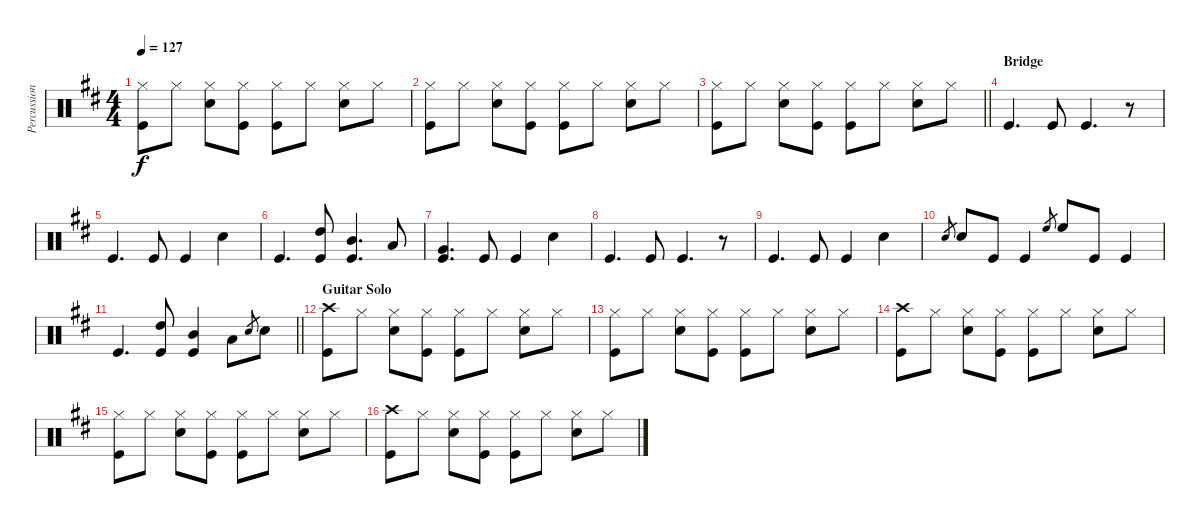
\track ("Percussion" "Percussion") {instrument percussion}
\staff {score}
\articulation defaults
\ts (4 4)
\tempo 127
\clef neutral
\ks d
("Hi-Hat (closed)" "Kick (hit)").8{dy f} "Hi-Hat (closed)".8 ("Hi-Hat (closed)" "Snare (hit) 2").8 ("Hi-Hat (closed)" "Kick (hit)").8 ("Hi-Hat (closed)" "Kick (hit)").8 "Hi-Hat (closed)".8 ("Hi-Hat (closed)" "Snare (hit) 2").8 "Hi-Hat (closed)".8 |
("Hi-Hat (closed)" "Kick (hit)").8 "Hi-Hat (closed)".8 ("Hi-Hat (closed)" "Snare (hit) 2").8 ("Hi-Hat (closed)" "Kick (hit)").8 ("Hi-Hat (closed)" "Kick (hit)").8 "Hi-Hat (closed)".8 ("Hi-Hat (closed)" "Snare (hit) 2").8 "Hi-Hat (closed)".8 |
\barLineRight lightlight
("Hi-Hat (closed)" "Kick (hit)").8 "Hi-Hat (closed)".8 ("Hi-Hat (closed)" "Snare (hit) 2").8 ("Hi-Hat (closed)" "Kick (hit)").8 ("Hi-Hat (closed)" "Kick (hit)").8 "Hi-Hat (closed)".8 ("Hi-Hat (closed)" "Snare (hit) 2").8 "Hi-Hat (closed)".8 |
\section ("" "Bridge")
"Kick (hit)".4{d} "Kick (hit)".8 "Kick (hit)".4{d} r.8 |
"Kick (hit)".4{d} "Kick (hit)".8 "Kick (hit)".4 "Snare (hit) 2".4 |
"Kick (hit)".4{d} ("High Tom (hit)" "Kick (hit)").8 ("Mid Tom (hit)" "Kick (hit)").4{d} "Low Tom (hit)".8 |
("Very Low Tom (hit)" "Kick (hit)").4{d} "Kick (hit)".8 "Kick (hit)".4 "Snare (hit) 2".4 |
"Kick (hit)".4{d} "Kick (hit)".8 "Kick (hit)".4{d} r.8 |
"Kick (hit)".4{d} "Kick (hit)".8 "Kick (hit)".4 "Snare (hit) 2".4 |
"Snare (hit) 2".8{gr} "Snare (hit) 2".8 "Kick (hit)".8 "Kick (hit)".4 "High Floor Tom (hit)".8{gr} "High Floor Tom (hit)".8 "Kick (hit)".8 "Kick (hit)".4 |
\barLineRight lightlight "Kick (hit)".4{d}
("High Tom (hit)" "Kick (hit)").8 ("Mid Tom (hit)" "Kick (hit)").4 "Low Tom (hit)".8 "Snare (hit) 2".8{gr} "Snare (hit) 2".8 |
\section ("" "Guitar Solo")
("Crash high (hit)" "Kick (hit)").8 "Hi-Hat (closed)".8 ("Hi-Hat (closed)" "Snare (hit) 2").8 ("Hi-Hat (closed)" "Kick (hit)").8 ("Hi-Hat (closed)" "Kick (hit)").8 "Hi-Hat (closed)".8 ("Hi-Hat (closed)" "Snare (hit) 2").8 "Hi-Hat (closed)".8 |
("Hi-Hat (closed)" "Kick (hit)").8 "Hi-Hat (closed)".8 ("Hi-Hat (closed)" "Snare (hit) 2").8 ("Hi-Hat (closed)" "Kick (hit)").8 ("Hi-Hat (closed)" "Kick (hit)").8 "Hi-Hat (closed)".8 ("Hi-Hat (closed)" "Snare (hit) 2").8 "Hi-Hat (closed)".8 |
("Crash high (hit)" "Kick (hit)").8 "Hi-Hat (closed)".8 ("Hi-Hat (closed)" "Snare (hit) 2").8 ("Hi-Hat (closed)" "Kick (hit)").8 ("Hi-Hat (closed)" "Kick (hit)").8 "Hi-Hat (closed)".8 ("Hi-Hat (closed)" "Snare (hit) 2").8 "Hi-Hat (closed)".8 |
("Hi-Hat (closed)" "Kick (hit)").8 "Hi-Hat (closed)".8 ("Hi-Hat (closed)" "Snare (hit) 2").8 ("Hi-Hat (closed)" "Kick (hit)").8 ("Hi-Hat (closed)" "Kick (hit)").8 "Hi-Hat (closed)".8 ("Hi-Hat (closed)" "Snare (hit) 2").8 "Hi-Hat (closed)".8 |
("Crash high (hit)" "Kick (hit)").8 "Hi-Hat (closed)".8 ("Hi-Hat (closed)" "Snare (hit) 2").8 ("Hi-Hat (closed)" "Kick (hit)").8 ("Hi-Hat (closed)" "Kick (hit)").8 "Hi-Hat (closed)".8 ("Hi-Hat (closed)" "Snare (hit) 2").8 "Hi-Hat (closed)".8
